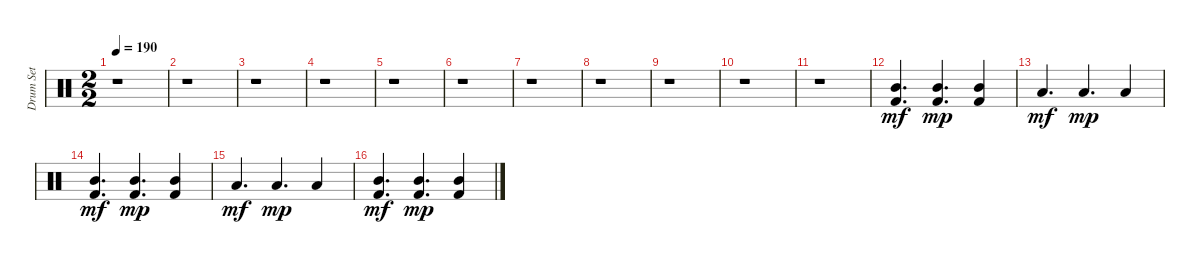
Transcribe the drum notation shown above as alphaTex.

\track ("Drum Set" "Drum Set") {instrument percussion}
\staff {score}
\articulation defaults
\ts (2 2)
\tempo 190
\clef neutral
\ks c
r.1{dy mf} |
r.1 |
r.1 |
r.1 |
r.1 |
r.1 |
r.1 |
r.1 |
r.1 |
r.1 |
r.1 |
("Mid Tom (hit)" "Kick (hit) 2").4{d} ("Kick (hit) 2" "Mid Tom (hit)").4{d dy mp} ("Kick (hit) 2" "Mid Tom (hit)").4 |
"Low Tom (hit)".4{d dy mf} "Low Tom (hit)".4{d dy mp} "Low Tom (hit)".4 |
("Kick (hit) 2" "Mid Tom (hit)").4{d dy mf} ("Kick (hit) 2" "Mid Tom (hit)").4{d dy mp} ("Kick (hit) 2" "Mid Tom (hit)").4 |
"Low Tom (hit)".4{d dy mf} "Low Tom (hit)".4{d dy mp} "Low Tom (hit)".4 |
("Mid Tom (hit)" "Kick (hit) 2").4{d dy mf} ("Mid Tom (hit)" "Kick (hit) 2").4{d dy mp} ("Kick (hit) 2" "Mid Tom (hit)").4
